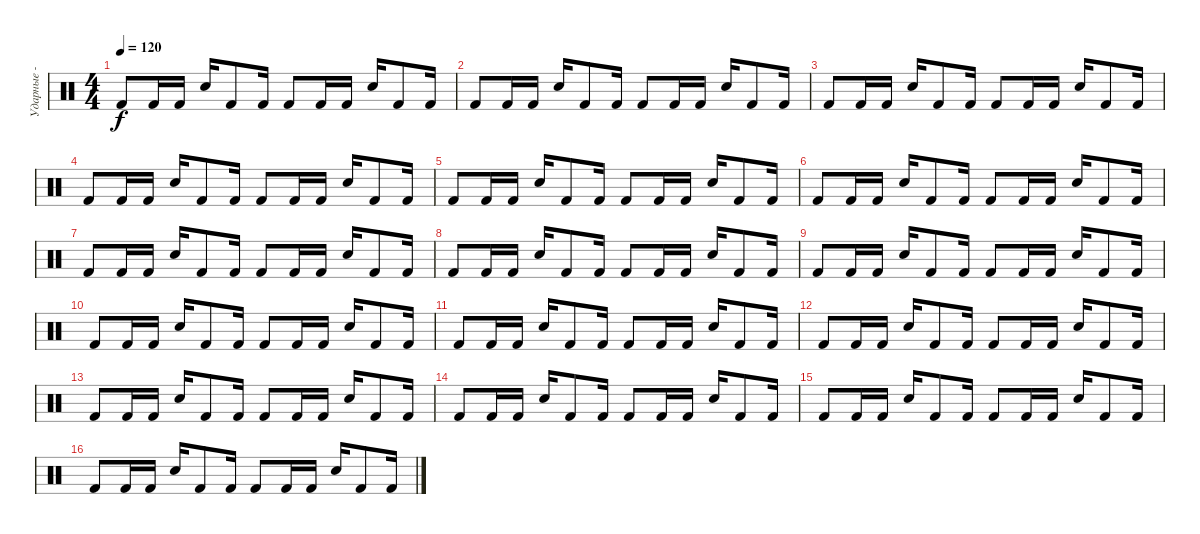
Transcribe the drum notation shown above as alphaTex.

\track ("Ударные - 1" "Ударные - ") {instrument percussion}
\staff {score}
\articulation defaults
\ts (4 4)
\tempo 120
\clef neutral
\ks c "Kick (hit) 2".8{dy f} "Kick (hit) 2".16 "Kick (hit) 2".16 "Electric Snare (hit)".16 "Kick (hit) 2".8 "Kick (hit) 2".16 "Kick (hit) 2".8 "Kick (hit) 2".16 "Kick (hit) 2".16 "Electric Snare (hit)".16 "Kick (hit) 2".8 "Kick (hit) 2".16
|
"Kick (hit) 2".8 "Kick (hit) 2".16 "Kick (hit) 2".16 "Electric Snare (hit)".16 "Kick (hit) 2".8 "Kick (hit) 2".16 "Kick (hit) 2".8 "Kick (hit) 2".16 "Kick (hit) 2".16 "Electric Snare (hit)".16 "Kick (hit) 2".8 "Kick (hit) 2".16 |
"Kick (hit) 2".8 "Kick (hit) 2".16 "Kick (hit) 2".16 "Electric Snare (hit)".16 "Kick (hit) 2".8 "Kick (hit) 2".16 "Kick (hit) 2".8 "Kick (hit) 2".16 "Kick (hit) 2".16 "Electric Snare (hit)".16 "Kick (hit) 2".8 "Kick (hit) 2".16 |
"Kick (hit) 2".8 "Kick (hit) 2".16 "Kick (hit) 2".16 "Electric Snare (hit)".16 "Kick (hit) 2".8 "Kick (hit) 2".16 "Kick (hit) 2".8 "Kick (hit) 2".16 "Kick (hit) 2".16 "Electric Snare (hit)".16 "Kick (hit) 2".8 "Kick (hit) 2".16 |
"Kick (hit) 2".8 "Kick (hit) 2".16 "Kick (hit) 2".16 "Electric Snare (hit)".16 "Kick (hit) 2".8 "Kick (hit) 2".16 "Kick (hit) 2".8 "Kick (hit) 2".16 "Kick (hit) 2".16 "Electric Snare (hit)".16 "Kick (hit) 2".8 "Kick (hit) 2".16 |
"Kick (hit) 2".8 "Kick (hit) 2".16 "Kick (hit) 2".16 "Electric Snare (hit)".16 "Kick (hit) 2".8 "Kick (hit) 2".16 "Kick (hit) 2".8 "Kick (hit) 2".16 "Kick (hit) 2".16 "Electric Snare (hit)".16 "Kick (hit) 2".8 "Kick (hit) 2".16 |
"Kick (hit) 2".8 "Kick (hit) 2".16 "Kick (hit) 2".16 "Electric Snare (hit)".16 "Kick (hit) 2".8 "Kick (hit) 2".16 "Kick (hit) 2".8 "Kick (hit) 2".16 "Kick (hit) 2".16 "Electric Snare (hit)".16 "Kick (hit) 2".8 "Kick (hit) 2".16 |
"Kick (hit) 2".8 "Kick (hit) 2".16 "Kick (hit) 2".16 "Electric Snare (hit)".16 "Kick (hit) 2".8 "Kick (hit) 2".16 "Kick (hit) 2".8 "Kick (hit) 2".16 "Kick (hit) 2".16 "Electric Snare (hit)".16 "Kick (hit) 2".8 "Kick (hit) 2".16 |
"Kick (hit) 2".8 "Kick (hit) 2".16 "Kick (hit) 2".16 "Electric Snare (hit)".16 "Kick (hit) 2".8 "Kick (hit) 2".16 "Kick (hit) 2".8 "Kick (hit) 2".16 "Kick (hit) 2".16 "Electric Snare (hit)".16 "Kick (hit) 2".8 "Kick (hit) 2".16 |
"Kick (hit) 2".8 "Kick (hit) 2".16 "Kick (hit) 2".16 "Electric Snare (hit)".16 "Kick (hit) 2".8 "Kick (hit) 2".16 "Kick (hit) 2".8 "Kick (hit) 2".16 "Kick (hit) 2".16 "Electric Snare (hit)".16 "Kick (hit) 2".8 "Kick (hit) 2".16 |
"Kick (hit) 2".8 "Kick (hit) 2".16 "Kick (hit) 2".16 "Electric Snare (hit)".16 "Kick (hit) 2".8 "Kick (hit) 2".16 "Kick (hit) 2".8 "Kick (hit) 2".16 "Kick (hit) 2".16 "Electric Snare (hit)".16 "Kick (hit) 2".8 "Kick (hit) 2".16 |
"Kick (hit) 2".8 "Kick (hit) 2".16 "Kick (hit) 2".16 "Electric Snare (hit)".16 "Kick (hit) 2".8 "Kick (hit) 2".16 "Kick (hit) 2".8 "Kick (hit) 2".16 "Kick (hit) 2".16 "Electric Snare (hit)".16 "Kick (hit) 2".8 "Kick (hit) 2".16 |
"Kick (hit) 2".8 "Kick (hit) 2".16 "Kick (hit) 2".16 "Electric Snare (hit)".16 "Kick (hit) 2".8 "Kick (hit) 2".16 "Kick (hit) 2".8 "Kick (hit) 2".16 "Kick (hit) 2".16 "Electric Snare (hit)".16 "Kick (hit) 2".8 "Kick (hit) 2".16 |
"Kick (hit) 2".8 "Kick (hit) 2".16 "Kick (hit) 2".16 "Electric Snare (hit)".16 "Kick (hit) 2".8 "Kick (hit) 2".16 "Kick (hit) 2".8 "Kick (hit) 2".16 "Kick (hit) 2".16 "Electric Snare (hit)".16 "Kick (hit) 2".8 "Kick (hit) 2".16 |
"Kick (hit) 2".8 "Kick (hit) 2".16 "Kick (hit) 2".16 "Electric Snare (hit)".16 "Kick (hit) 2".8 "Kick (hit) 2".16 "Kick (hit) 2".8 "Kick (hit) 2".16 "Kick (hit) 2".16 "Electric Snare (hit)".16 "Kick (hit) 2".8 "Kick (hit) 2".16 |
"Kick (hit) 2".8 "Kick (hit) 2".16 "Kick (hit) 2".16 "Electric Snare (hit)".16 "Kick (hit) 2".8 "Kick (hit) 2".16 "Kick (hit) 2".8 "Kick (hit) 2".16 "Kick (hit) 2".16 "Electric Snare (hit)".16 "Kick (hit) 2".8 "Kick (hit) 2".16
